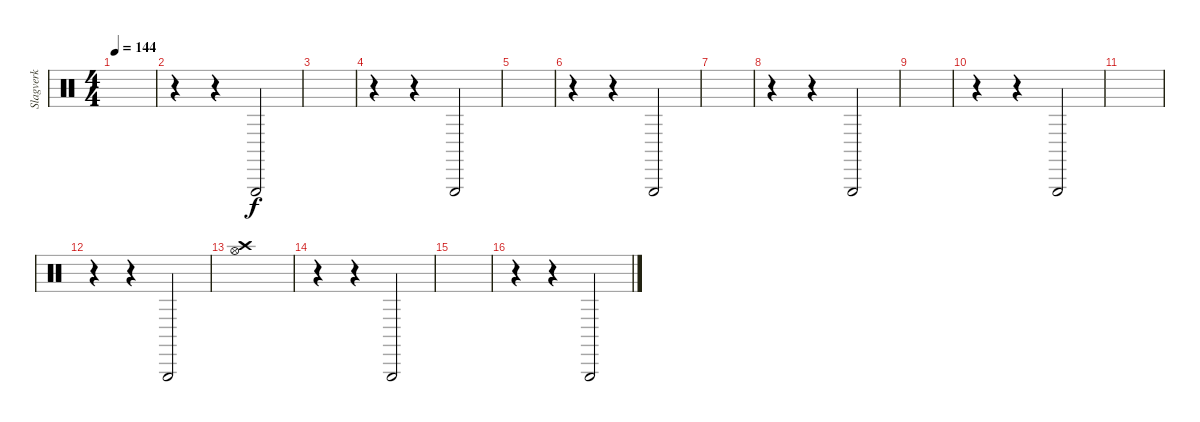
\track ("Slagverk" "Slagverk") {instrument percussion}
\staff {score}
\articulation defaults
\ts (4 4)
\tempo 144
\clef neutral
\ks c
|
r.4 r.4 "Triangle (hit)".2 |
|
r.4 r.4 "Triangle (hit)".2 |
|
r.4 r.4 "Triangle (hit)".2 |
|
r.4 r.4 "Triangle (hit)".2 |
|
r.4 r.4 "Triangle (hit)".2 |
|
r.4 r.4 "Triangle (hit)".2 |
("Hi-Hat (open)" "Crash high (hit)").1 |
r.4 r.4 "Triangle (hit)".2 |
|
r.4 r.4 "Triangle (hit)".2
